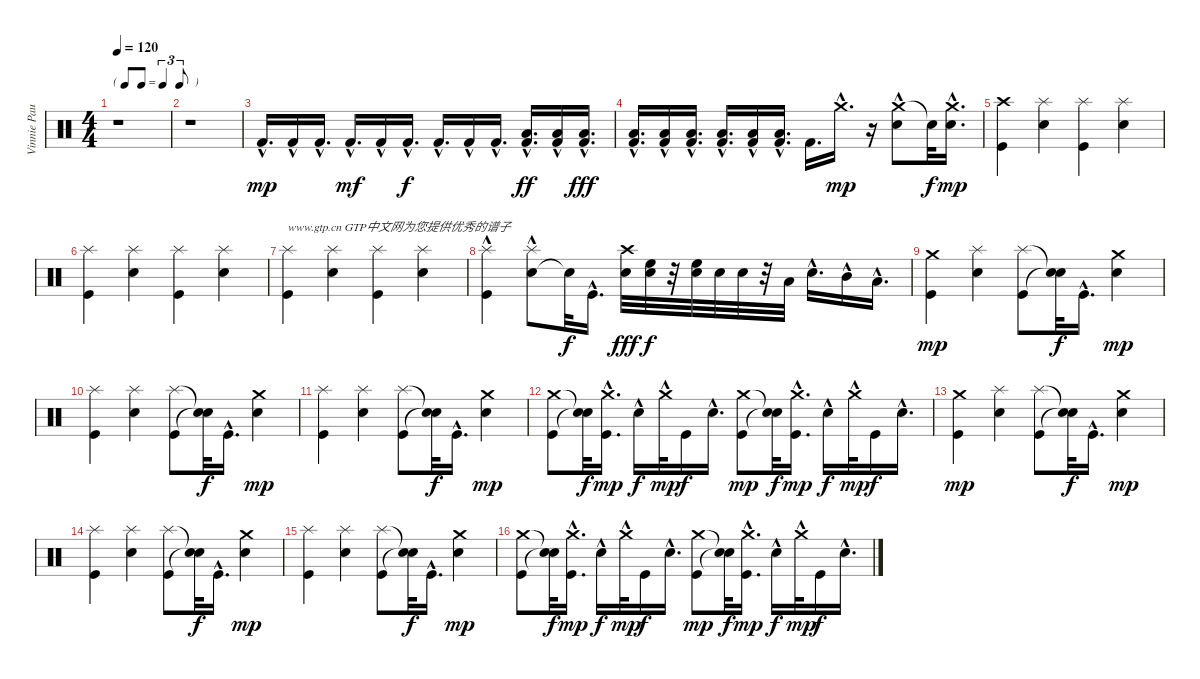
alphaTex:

\track ("Vinnie Paul (Drums)" "Vinnie Pau") {instrument percussion}
\staff {score}
\articulation defaults
\ts (4 4)
\tf triplet8th
\tempo 120
\clef neutral
\ks c
r.1{dy mp} |
r.1 |
"Kick (hit) 2"{hac}.16{d} "Kick (hit) 2"{hac}.16 "Kick (hit) 2"{hac}.16{d} "Kick (hit) 2"{hac}.16{d dy mf} "Kick (hit) 2"{hac}.16 "Kick (hit) 2"{hac}.16{d dy f} "Kick (hit) 2"{hac}.16{d} "Kick (hit) 2"{hac}.16 "Kick (hit) 2"{hac}.16{d} ("Low Floor Tom (hit)"{hac} "Kick (hit) 2"{hac}).16{d dy ff} ("Low Floor Tom (hit)"{hac} "Kick (hit) 2"{hac}).16 ("Low Floor Tom (hit)"{hac} "Kick (hit) 2"{hac}).16{d dy fff} |
("Low Floor Tom (hit)"{hac} "Kick (hit) 2"{hac}).16{d} ("Low Floor Tom (hit)"{hac} "Kick (hit) 2"{hac}).16 ("Low Floor Tom (hit)"{hac} "Kick (hit) 2"{hac}).16{d} ("Low Floor Tom (hit)"{hac} "Kick (hit) 2"{hac}).16{d} ("Low Floor Tom (hit)"{hac} "Kick (hit) 2"{hac}).16 ("Low Floor Tom (hit)"{hac} "Kick (hit) 2"{hac}).16{d} "Kick (hit) 2".16{d} "Crash medium (hit)"{hac}.16{d dy mp} r.16 ("Crash medium (hit)"{hac} "Snare (hit) 2").8 "Snare (hit)"{t}.32{dy f} ("Snare (hit) 2"{hac} "Crash medium (hit)"{hac}).16{d dy mp} |
("Kick (hit)" "Crash high (hit)").4 ("Splash (hit)" "Electric Snare (hit)").4 ("Kick (hit)" "Splash (hit)").4 ("Electric Snare (hit)" "Splash (hit)").4 |
("Kick (hit)" "Splash (hit)").4 ("Electric Snare (hit)" "Splash (hit)").4 ("Kick (hit)" "Splash (hit)").4 ("Electric Snare (hit)" "Splash (hit)").4 |
("Splash (hit)" "Kick (hit)").4{txt "www.gtp.cn GTP中文网为您提供优秀的谱子"} ("Splash (hit)" "Electric Snare (hit)").4 ("Splash (hit)" "Kick (hit)").4 ("Splash (hit)" "Electric Snare (hit)").4 |
("Kick (hit)"{hac} "Splash (hit)").4 ("Electric Snare (hit)"{hac} "Splash (hit)").8 "Snare (hit)"{t}.32{dy f} "Kick (hit)"{hac}.16{d} ("Electric Snare (hit)" "Crash high (hit)").32{dy fff} ("Electric Snare (hit)" "High Floor Tom (hit)").32{dy f} r.32 ("Electric Snare (hit)" "High Floor Tom (hit)").32 "Electric Snare (hit)".32 "Electric Snare (hit)".32 r.32 "Low Tom (hit)".32 "Electric Snare (hit)"{hac}.16{d} "Mid Tom (hit)"{hac}.16 "Low Tom (hit)"{hac}.16{d} |
("Kick (hit)" "Crash medium (hit)").4{dy mp} ("Electric Snare (hit)" "Splash (hit)").4 ("Kick (hit)" "Splash (hit)").8 ("Snare (hit)"{t} "Snare (hit)"{t}).32{dy f} "Kick (hit)"{hac}.16{d} ("Electric Snare (hit)" "Crash medium (hit)").4{dy mp} |
("Kick (hit)" "Splash (hit)").4 ("Electric Snare (hit)" "Splash (hit)").4 ("Kick (hit)" "Splash (hit)").8 ("Snare (hit)"{t} "Snare (hit)"{t}).32{dy f} "Kick (hit)"{hac}.16{d} ("Electric Snare (hit)" "Crash medium (hit)").4{dy mp} |
("Kick (hit)" "Splash (hit)").4 ("Electric Snare (hit)" "Splash (hit)").4 ("Kick (hit)" "Splash (hit)").8 ("Snare (hit)"{t} "Snare (hit)"{t}).32{dy f} "Kick (hit)"{hac}.16{d} ("Electric Snare (hit)" "Crash medium (hit)").4{dy mp} |
("Crash medium (hit)" "Kick (hit)").8 ("Snare (hit)"{t} "Snare (hit)"{t}).32{dy f} ("Crash medium (hit)"{hac} "Kick (hit)").16{d dy mp} "Electric Snare (hit)"{hac}.16{dy f} "Crash medium (hit)"{hac}.32{dy mp} "Kick (hit)".16{dy f} "Electric Snare (hit)"{hac}.16{d} ("Crash medium (hit)" "Kick (hit)").8{dy mp} ("Snare (hit)"{t} "Snare (hit)"{t}).32{dy f} ("Crash medium (hit)"{hac} "Kick (hit)").16{d dy mp} "Electric Snare (hit)"{hac}.16{dy f} "Crash medium (hit)"{hac}.32{dy mp} "Kick (hit)".16{dy f} "Electric Snare (hit)"{hac}.16{d} |
("Kick (hit)" "Crash medium (hit)").4{dy mp} ("Electric Snare (hit)" "Splash (hit)").4 ("Kick (hit)" "Splash (hit)").8 ("Snare (hit)"{t} "Snare (hit)"{t}).32{dy f} "Kick (hit)"{hac}.16{d} ("Electric Snare (hit)" "Crash medium (hit)").4{dy mp} |
("Kick (hit)" "Splash (hit)").4 ("Electric Snare (hit)" "Splash (hit)").4 ("Kick (hit)" "Splash (hit)").8 ("Snare (hit)"{t} "Snare (hit)"{t}).32{dy f} "Kick (hit)"{hac}.16{d} ("Electric Snare (hit)" "Crash medium (hit)").4{dy mp} |
("Kick (hit)" "Splash (hit)").4 ("Electric Snare (hit)" "Splash (hit)").4 ("Kick (hit)" "Splash (hit)").8 ("Snare (hit)"{t} "Snare (hit)"{t}).32{dy f} "Kick (hit)"{hac}.16{d} ("Electric Snare (hit)" "Crash medium (hit)").4{dy mp} |
("Crash medium (hit)" "Kick (hit)").8 ("Snare (hit)"{t} "Snare (hit)"{t}).32{dy f} ("Crash medium (hit)"{hac} "Kick (hit)").16{d dy mp} "Electric Snare (hit)"{hac}.16{dy f} "Crash medium (hit)"{hac}.32{dy mp} "Kick (hit)".16{dy f} "Electric Snare (hit)"{hac}.16{d} ("Crash medium (hit)" "Kick (hit)").8{dy mp} ("Snare (hit)"{t} "Snare (hit)"{t}).32{dy f} ("Crash medium (hit)"{hac} "Kick (hit)").16{d dy mp} "Electric Snare (hit)"{hac}.16{dy f} "Crash medium (hit)"{hac}.32{dy mp} "Kick (hit)".16{dy f} "Electric Snare (hit)"{hac}.16{d}
